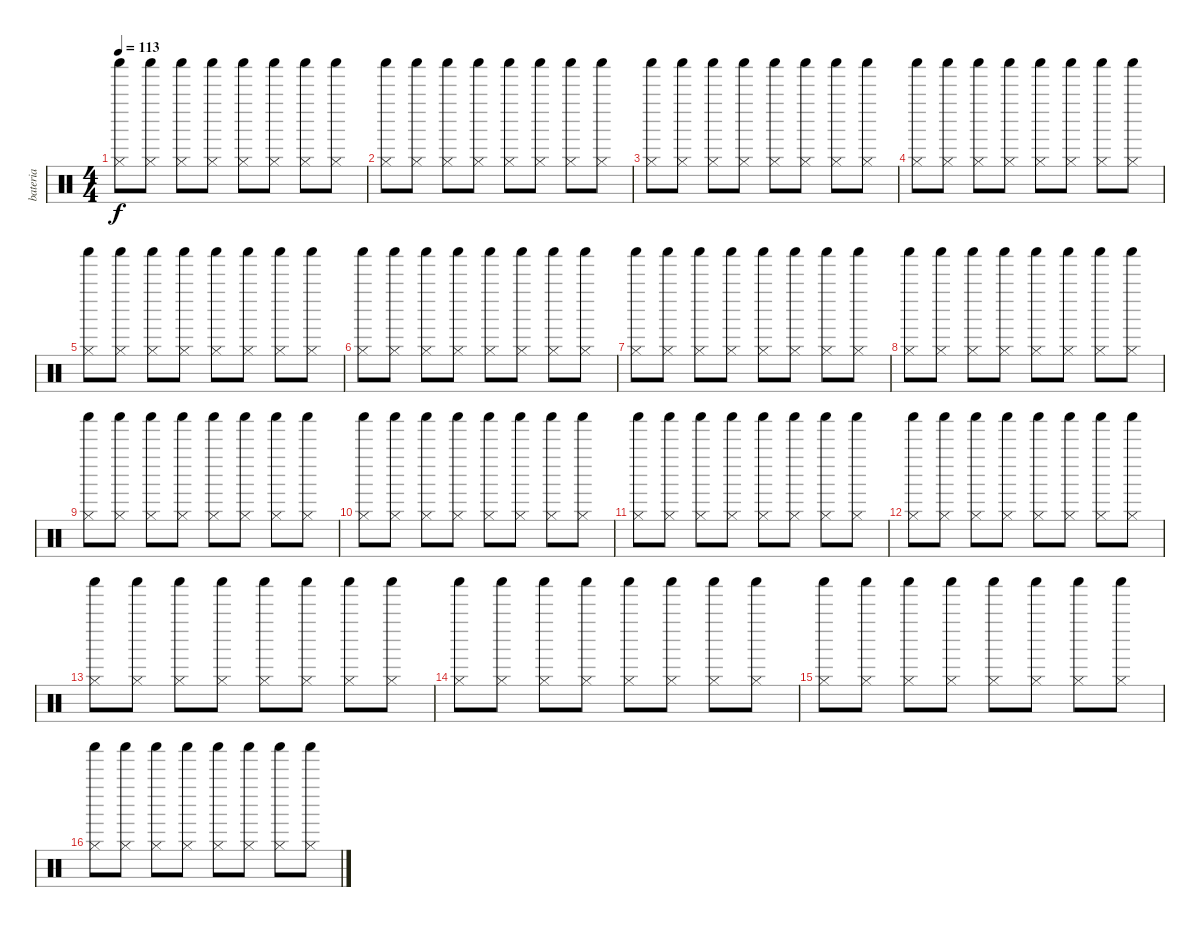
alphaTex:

\track ("bateria" "bateria") {instrument percussion}
\staff {score}
\articulation defaults
\ts (4 4)
\tempo 113
\clef neutral
\ks c
("Shaker (hit)" "Hi-Hat (closed)").8{dy f} ("Shaker (hit)" "Hi-Hat (closed)").8 ("Shaker (hit)" "Hi-Hat (closed)").8 ("Shaker (hit)" "Hi-Hat (closed)").8 ("Shaker (hit)" "Hi-Hat (closed)").8 ("Shaker (hit)" "Hi-Hat (closed)").8 ("Shaker (hit)" "Hi-Hat (closed)").8 ("Shaker (hit)" "Hi-Hat (closed)").8 |
("Shaker (hit)" "Hi-Hat (closed)").8 ("Shaker (hit)" "Hi-Hat (closed)").8 ("Shaker (hit)" "Hi-Hat (closed)").8 ("Shaker (hit)" "Hi-Hat (closed)").8 ("Shaker (hit)" "Hi-Hat (closed)").8 ("Shaker (hit)" "Hi-Hat (closed)").8 ("Shaker (hit)" "Hi-Hat (closed)").8 ("Shaker (hit)" "Hi-Hat (closed)").8 |
("Shaker (hit)" "Hi-Hat (closed)").8 ("Shaker (hit)" "Hi-Hat (closed)").8 ("Shaker (hit)" "Hi-Hat (closed)").8 ("Shaker (hit)" "Hi-Hat (closed)").8 ("Shaker (hit)" "Hi-Hat (closed)").8 ("Shaker (hit)" "Hi-Hat (closed)").8 ("Shaker (hit)" "Hi-Hat (closed)").8 ("Shaker (hit)" "Hi-Hat (closed)").8 |
("Shaker (hit)" "Hi-Hat (closed)").8 ("Shaker (hit)" "Hi-Hat (closed)").8 ("Shaker (hit)" "Hi-Hat (closed)").8 ("Shaker (hit)" "Hi-Hat (closed)").8 ("Shaker (hit)" "Hi-Hat (closed)").8 ("Shaker (hit)" "Hi-Hat (closed)").8 ("Shaker (hit)" "Hi-Hat (closed)").8 ("Shaker (hit)" "Hi-Hat (closed)").8 |
("Shaker (hit)" "Hi-Hat (closed)").8 ("Shaker (hit)" "Hi-Hat (closed)").8 ("Shaker (hit)" "Hi-Hat (closed)").8 ("Shaker (hit)" "Hi-Hat (closed)").8 ("Shaker (hit)" "Hi-Hat (closed)").8 ("Shaker (hit)" "Hi-Hat (closed)").8 ("Shaker (hit)" "Hi-Hat (closed)").8 ("Shaker (hit)" "Hi-Hat (closed)").8 |
("Shaker (hit)" "Hi-Hat (closed)").8 ("Shaker (hit)" "Hi-Hat (closed)").8 ("Shaker (hit)" "Hi-Hat (closed)").8 ("Shaker (hit)" "Hi-Hat (closed)").8 ("Shaker (hit)" "Hi-Hat (closed)").8 ("Shaker (hit)" "Hi-Hat (closed)").8 ("Shaker (hit)" "Hi-Hat (closed)").8 ("Shaker (hit)" "Hi-Hat (closed)").8 |
("Shaker (hit)" "Hi-Hat (closed)").8 ("Shaker (hit)" "Hi-Hat (closed)").8 ("Shaker (hit)" "Hi-Hat (closed)").8 ("Shaker (hit)" "Hi-Hat (closed)").8 ("Shaker (hit)" "Hi-Hat (closed)").8 ("Shaker (hit)" "Hi-Hat (closed)").8 ("Shaker (hit)" "Hi-Hat (closed)").8 ("Shaker (hit)" "Hi-Hat (closed)").8 |
("Shaker (hit)" "Hi-Hat (closed)").8 ("Shaker (hit)" "Hi-Hat (closed)").8 ("Shaker (hit)" "Hi-Hat (closed)").8 ("Shaker (hit)" "Hi-Hat (closed)").8 ("Shaker (hit)" "Hi-Hat (closed)").8 ("Shaker (hit)" "Hi-Hat (closed)").8 ("Shaker (hit)" "Hi-Hat (closed)").8 ("Shaker (hit)" "Hi-Hat (closed)").8 |
("Shaker (hit)" "Hi-Hat (closed)").8 ("Shaker (hit)" "Hi-Hat (closed)").8 ("Shaker (hit)" "Hi-Hat (closed)").8 ("Shaker (hit)" "Hi-Hat (closed)").8 ("Shaker (hit)" "Hi-Hat (closed)").8 ("Shaker (hit)" "Hi-Hat (closed)").8 ("Shaker (hit)" "Hi-Hat (closed)").8 ("Shaker (hit)" "Hi-Hat (closed)").8 |
("Shaker (hit)" "Hi-Hat (closed)").8 ("Shaker (hit)" "Hi-Hat (closed)").8 ("Shaker (hit)" "Hi-Hat (closed)").8 ("Shaker (hit)" "Hi-Hat (closed)").8 ("Shaker (hit)" "Hi-Hat (closed)").8 ("Shaker (hit)" "Hi-Hat (closed)").8 ("Shaker (hit)" "Hi-Hat (closed)").8 ("Shaker (hit)" "Hi-Hat (closed)").8 |
("Shaker (hit)" "Hi-Hat (closed)").8 ("Shaker (hit)" "Hi-Hat (closed)").8 ("Shaker (hit)" "Hi-Hat (closed)").8 ("Shaker (hit)" "Hi-Hat (closed)").8 ("Shaker (hit)" "Hi-Hat (closed)").8 ("Shaker (hit)" "Hi-Hat (closed)").8 ("Shaker (hit)" "Hi-Hat (closed)").8 ("Shaker (hit)" "Hi-Hat (closed)").8 |
("Shaker (hit)" "Hi-Hat (closed)").8 ("Shaker (hit)" "Hi-Hat (closed)").8 ("Shaker (hit)" "Hi-Hat (closed)").8 ("Shaker (hit)" "Hi-Hat (closed)").8 ("Shaker (hit)" "Hi-Hat (closed)").8 ("Shaker (hit)" "Hi-Hat (closed)").8 ("Shaker (hit)" "Hi-Hat (closed)").8 ("Shaker (hit)" "Hi-Hat (closed)").8 |
("Shaker (hit)" "Hi-Hat (closed)").8 ("Shaker (hit)" "Hi-Hat (closed)").8 ("Shaker (hit)" "Hi-Hat (closed)").8 ("Shaker (hit)" "Hi-Hat (closed)").8 ("Shaker (hit)" "Hi-Hat (closed)").8 ("Shaker (hit)" "Hi-Hat (closed)").8 ("Shaker (hit)" "Hi-Hat (closed)").8 ("Shaker (hit)" "Hi-Hat (closed)").8 |
("Shaker (hit)" "Hi-Hat (closed)").8 ("Shaker (hit)" "Hi-Hat (closed)").8 ("Shaker (hit)" "Hi-Hat (closed)").8 ("Shaker (hit)" "Hi-Hat (closed)").8 ("Shaker (hit)" "Hi-Hat (closed)").8 ("Shaker (hit)" "Hi-Hat (closed)").8 ("Shaker (hit)" "Hi-Hat (closed)").8 ("Shaker (hit)" "Hi-Hat (closed)").8 |
("Shaker (hit)" "Hi-Hat (closed)").8 ("Shaker (hit)" "Hi-Hat (closed)").8 ("Shaker (hit)" "Hi-Hat (closed)").8 ("Shaker (hit)" "Hi-Hat (closed)").8 ("Shaker (hit)" "Hi-Hat (closed)").8 ("Shaker (hit)" "Hi-Hat (closed)").8 ("Shaker (hit)" "Hi-Hat (closed)").8 ("Shaker (hit)" "Hi-Hat (closed)").8 |
("Shaker (hit)" "Hi-Hat (closed)").8 ("Shaker (hit)" "Hi-Hat (closed)").8 ("Shaker (hit)" "Hi-Hat (closed)").8 ("Shaker (hit)" "Hi-Hat (closed)").8 ("Shaker (hit)" "Hi-Hat (closed)").8 ("Shaker (hit)" "Hi-Hat (closed)").8 ("Shaker (hit)" "Hi-Hat (closed)").8 ("Shaker (hit)" "Hi-Hat (closed)").8
